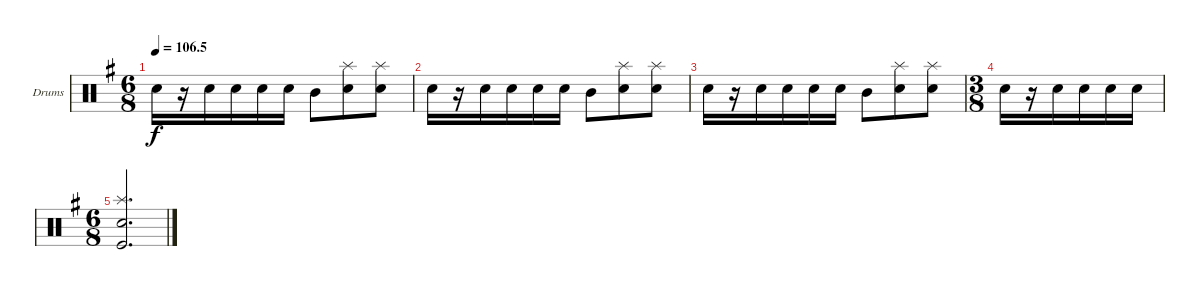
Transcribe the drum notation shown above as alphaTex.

\defaultSystemsLayout 4
\bracketExtendMode groupsimilarinstruments
\firstSystemTrackNameOrientation horizontal
\otherSystemsTrackNameOrientation horizontal
\track ("Drumkit" "Drums") {instrument percussion}
\staff {score}
\articulation defaults
\ts (6 8)
\tempo
106.5
\accidentals auto
\clef neutral
\ottava regular
\simile none
\scale
0.333333
\ks g "Snare (hit) 2".16{dy f}
r.16 "Snare (hit) 2".16 "Snare (hit) 2".16 "Snare (hit) 2".16 "Snare (hit) 2".16 "Mid Tom (hit)".8 ("Snare (hit) 2" "Splash (hit)").8 ("Snare (hit) 2" "Splash (hit)").8 |
\scale
0.333333 "Snare (hit) 2".16 r.16 "Snare (hit) 2".16 "Snare (hit) 2".16 "Snare (hit) 2".16 "Snare (hit) 2".16 "Mid Tom (hit)".8 ("Snare (hit) 2" "Splash (hit)").8 ("Snare (hit) 2" "Splash (hit)").8 |
\scale
0.333333 "Snare (hit) 2".16 r.16 "Snare (hit) 2".16 "Snare (hit) 2".16 "Snare (hit) 2".16 "Snare (hit) 2".16 "Mid Tom (hit)".8 ("Snare (hit) 2" "Splash (hit)").8 ("Snare (hit) 2" "Splash (hit)").8 |
\ts (3 8)
\scale
0.400697 "Snare (hit) 2".16 r.16 "Snare (hit) 2".16 "Snare (hit) 2".16 "Snare (hit) 2".16 "Snare (hit) 2".16 |
\ts (6 8)
\scale
0.400697 ("Splash (hit)" "Snare (hit) 2" "Kick (hit)").2{d} |
\scale
0.198606
